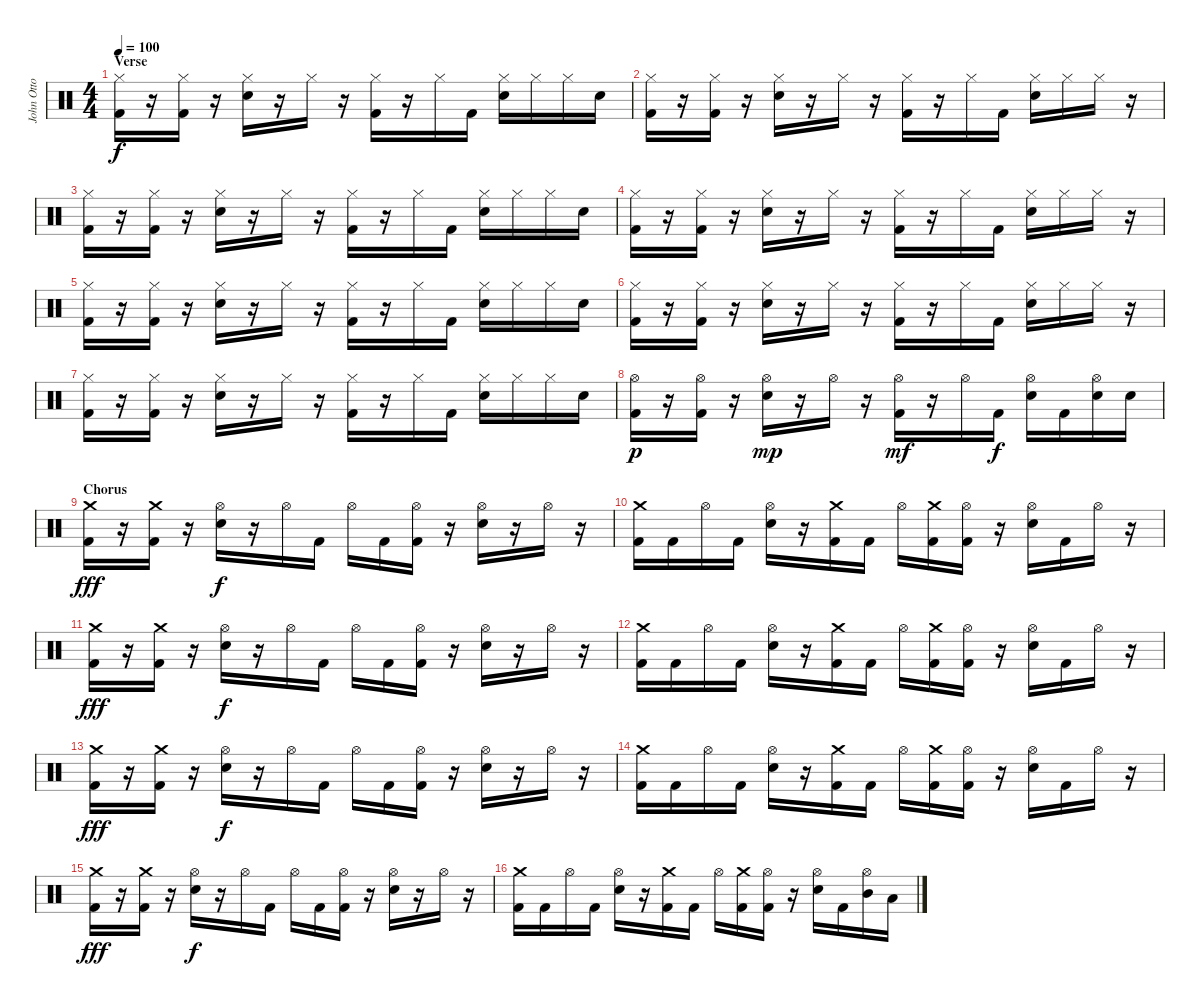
\track ("John Otto - Drums" "John Otto ") {instrument percussion}
\staff {score}
\articulation defaults
\ts (4 4)
\section ("" "Verse")
\tempo 100
\clef neutral
\ks c
("Hi-Hat (closed)" "Kick (hit) 2").16{dy f} r.16 ("Hi-Hat (closed)" "Kick (hit) 2").16 r.16 ("Hi-Hat (closed)" "Electric Snare (hit)").16 r.16 "Hi-Hat (closed)".16 r.16 ("Hi-Hat (closed)" "Kick (hit) 2").16 r.16 "Hi-Hat (closed)".16 "Kick (hit) 2".16 ("Hi-Hat (closed)" "Electric Snare (hit)").16 "Hi-Hat (closed)".16 "Hi-Hat (closed)".16 "Electric Snare (hit)".16 |
("Hi-Hat (closed)" "Kick (hit) 2").16 r.16 ("Hi-Hat (closed)" "Kick (hit) 2").16 r.16 ("Hi-Hat (closed)" "Electric Snare (hit)").16 r.16 "Hi-Hat (closed)".16 r.16 ("Hi-Hat (closed)" "Kick (hit) 2").16 r.16 "Hi-Hat (closed)".16 "Kick (hit) 2".16 ("Hi-Hat (closed)" "Electric Snare (hit)").16 "Hi-Hat (closed)".16 "Hi-Hat (closed)".16 r.16 |
("Hi-Hat (closed)" "Kick (hit) 2").16 r.16 ("Hi-Hat (closed)" "Kick (hit) 2").16 r.16 ("Hi-Hat (closed)" "Electric Snare (hit)").16 r.16 "Hi-Hat (closed)".16 r.16 ("Hi-Hat (closed)" "Kick (hit) 2").16 r.16 "Hi-Hat (closed)".16 "Kick (hit) 2".16 ("Hi-Hat (closed)" "Electric Snare (hit)").16 "Hi-Hat (closed)".16 "Hi-Hat (closed)".16 "Electric Snare (hit)".16 |
("Hi-Hat (closed)" "Kick (hit) 2").16 r.16 ("Hi-Hat (closed)" "Kick (hit) 2").16 r.16 ("Hi-Hat (closed)" "Electric Snare (hit)").16 r.16 "Hi-Hat (closed)".16 r.16 ("Hi-Hat (closed)" "Kick (hit) 2").16 r.16 "Hi-Hat (closed)".16 "Kick (hit) 2".16 ("Hi-Hat (closed)" "Electric Snare (hit)").16 "Hi-Hat (closed)".16 "Hi-Hat (closed)".16 r.16 |
("Hi-Hat (closed)" "Kick (hit) 2").16 r.16 ("Hi-Hat (closed)" "Kick (hit) 2").16 r.16 ("Hi-Hat (closed)" "Electric Snare (hit)").16 r.16 "Hi-Hat (closed)".16 r.16 ("Hi-Hat (closed)" "Kick (hit) 2").16 r.16 "Hi-Hat (closed)".16 "Kick (hit) 2".16 ("Hi-Hat (closed)" "Electric Snare (hit)").16 "Hi-Hat (closed)".16 "Hi-Hat (closed)".16 "Electric Snare (hit)".16 |
("Hi-Hat (closed)" "Kick (hit) 2").16 r.16 ("Hi-Hat (closed)" "Kick (hit) 2").16 r.16 ("Hi-Hat (closed)" "Electric Snare (hit)").16 r.16 "Hi-Hat (closed)".16 r.16 ("Hi-Hat (closed)" "Kick (hit) 2").16 r.16 "Hi-Hat (closed)".16 "Kick (hit) 2".16 ("Hi-Hat (closed)" "Electric Snare (hit)").16 "Hi-Hat (closed)".16 "Hi-Hat (closed)".16 r.16 |
("Hi-Hat (closed)" "Kick (hit) 2").16 r.16 ("Hi-Hat (closed)" "Kick (hit) 2").16 r.16 ("Hi-Hat (closed)" "Electric Snare (hit)").16 r.16 "Hi-Hat (closed)".16 r.16 ("Hi-Hat (closed)" "Kick (hit) 2").16 r.16 "Hi-Hat (closed)".16 "Kick (hit) 2".16 ("Hi-Hat (closed)" "Electric Snare (hit)").16 "Hi-Hat (closed)".16 "Hi-Hat (closed)".16 "Electric Snare (hit)".16 |
("Hi-Hat (open)" "Kick (hit) 2").16{dy p} r.16 ("Hi-Hat (open)" "Kick (hit) 2").16 r.16 ("Hi-Hat (open)" "Electric Snare (hit)").16{dy mp} r.16 "Hi-Hat (open)".16 r.16 ("Hi-Hat (open)" "Kick (hit) 2").16{dy mf} r.16 "Hi-Hat (open)".16 "Kick (hit) 2".16{dy f} ("Hi-Hat (open)" "Electric Snare (hit)").16 "Kick (hit) 2".16 ("Hi-Hat (open)" "Electric Snare (hit)").16 "Electric Snare (hit)".16 |
\section ("" "Chorus")
("Crash medium (hit)" "Kick (hit) 2").16{dy fff} r.16 ("Crash medium (hit)" "Kick (hit) 2").16 r.16 ("Hi-Hat (open)" "Electric Snare (hit)").16{dy f} r.16 "Hi-Hat (open)".16 "Kick (hit) 2".16 "Hi-Hat (open)".16 "Kick (hit) 2".16 ("Hi-Hat (open)" "Kick (hit) 2").16 r.16 ("Hi-Hat (open)" "Electric Snare (hit)").16 r.16 "Hi-Hat (open)".16 r.16 |
("Crash medium (hit)" "Kick (hit) 2").16 "Kick (hit) 2".16 "Hi-Hat (open)".16 "Kick (hit) 2".16 ("Hi-Hat (open)" "Electric Snare (hit)").16 r.16 ("Crash medium (hit)" "Kick (hit) 2").16 "Kick (hit) 2".16 "Hi-Hat (open)".16 ("Crash medium (hit)" "Kick (hit) 2").16 ("Hi-Hat (open)" "Kick (hit) 2").16 r.16 ("Hi-Hat (open)" "Electric Snare (hit)").16 "Kick (hit) 2".16 "Hi-Hat (open)".16 r.16 |
("Crash medium (hit)" "Kick (hit) 2").16{dy fff} r.16 ("Crash medium (hit)" "Kick (hit) 2").16 r.16 ("Hi-Hat (open)" "Electric Snare (hit)").16{dy f} r.16 "Hi-Hat (open)".16 "Kick (hit) 2".16 "Hi-Hat (open)".16 "Kick (hit) 2".16 ("Hi-Hat (open)" "Kick (hit) 2").16 r.16 ("Hi-Hat (open)" "Electric Snare (hit)").16 r.16 "Hi-Hat (open)".16 r.16 |
("Crash medium (hit)" "Kick (hit) 2").16 "Kick (hit) 2".16 "Hi-Hat (open)".16 "Kick (hit) 2".16 ("Hi-Hat (open)" "Electric Snare (hit)").16 r.16 ("Crash medium (hit)" "Kick (hit) 2").16 "Kick (hit) 2".16 "Hi-Hat (open)".16 ("Crash medium (hit)" "Kick (hit) 2").16 ("Hi-Hat (open)" "Kick (hit) 2").16 r.16 ("Hi-Hat (open)" "Electric Snare (hit)").16 "Kick (hit) 2".16 "Hi-Hat (open)".16 r.16 |
("Crash medium (hit)" "Kick (hit) 2").16{dy fff} r.16 ("Crash medium (hit)" "Kick (hit) 2").16 r.16 ("Hi-Hat (open)" "Electric Snare (hit)").16{dy f} r.16 "Hi-Hat (open)".16 "Kick (hit) 2".16 "Hi-Hat (open)".16 "Kick (hit) 2".16 ("Hi-Hat (open)" "Kick (hit) 2").16 r.16 ("Hi-Hat (open)" "Electric Snare (hit)").16 r.16 "Hi-Hat (open)".16 r.16 |
("Crash medium (hit)" "Kick (hit) 2").16 "Kick (hit) 2".16 "Hi-Hat (open)".16 "Kick (hit) 2".16 ("Hi-Hat (open)" "Electric Snare (hit)").16 r.16 ("Crash medium (hit)" "Kick (hit) 2").16 "Kick (hit) 2".16 "Hi-Hat (open)".16 ("Crash medium (hit)" "Kick (hit) 2").16 ("Hi-Hat (open)" "Kick (hit) 2").16 r.16 ("Hi-Hat (open)" "Electric Snare (hit)").16 "Kick (hit) 2".16 "Hi-Hat (open)".16 r.16 |
("Crash medium (hit)" "Kick (hit) 2").16{dy fff} r.16 ("Crash medium (hit)" "Kick (hit) 2").16 r.16 ("Hi-Hat (open)" "Electric Snare (hit)").16{dy f} r.16 "Hi-Hat (open)".16 "Kick (hit) 2".16 "Hi-Hat (open)".16 "Kick (hit) 2".16 ("Hi-Hat (open)" "Kick (hit) 2").16 r.16 ("Hi-Hat (open)" "Electric Snare (hit)").16 r.16 "Hi-Hat (open)".16 r.16 |
("Crash medium (hit)" "Kick (hit) 2").16 "Kick (hit) 2".16 "Hi-Hat (open)".16 "Kick (hit) 2".16 ("Hi-Hat (open)" "Electric Snare (hit)").16 r.16 ("Crash medium (hit)" "Kick (hit) 2").16 "Kick (hit) 2".16 "Hi-Hat (open)".16 ("Crash medium (hit)" "Kick (hit) 2").16 ("Hi-Hat (open)" "Kick (hit) 2").16 r.16 ("Hi-Hat (open)" "Electric Snare (hit)").16 "Kick (hit) 2".16 ("Hi-Hat (open)" "Mid Tom (hit)").16 "Low Tom (hit)".16
